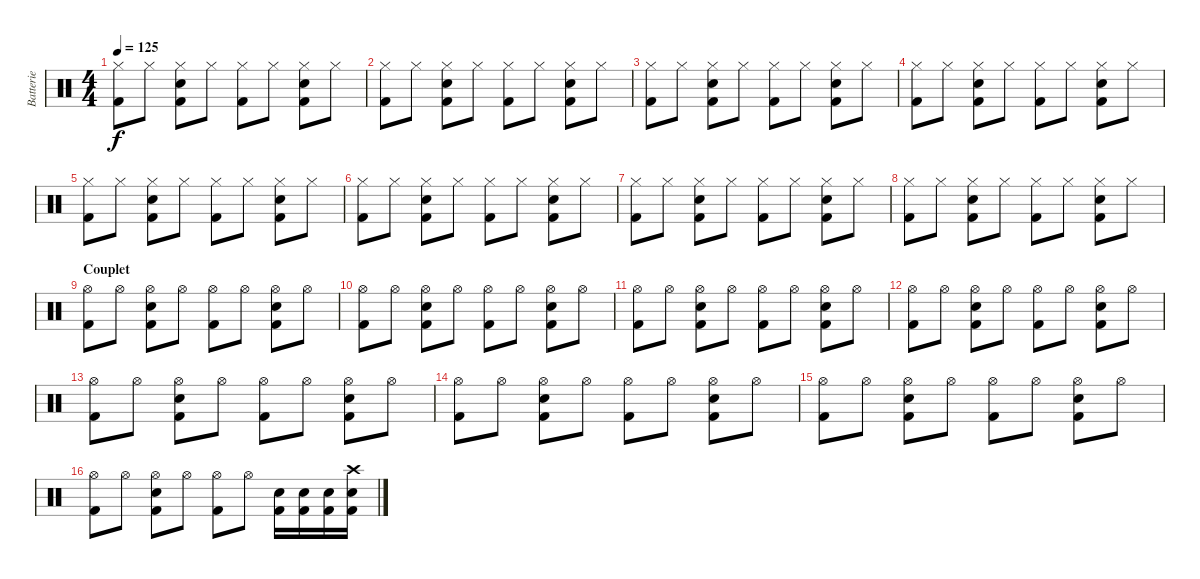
\track ("Batterie" "Batterie") {instrument percussion}
\staff {score}
\articulation defaults
\ts (4 4)
\tempo 125
\clef neutral
\ks c
("Hi-Hat (closed)" "Kick (hit) 2").8{dy f} "Hi-Hat (closed)".8 ("Hi-Hat (closed)" "Snare (hit) 2" "Kick (hit) 2").8 "Hi-Hat (closed)".8 ("Hi-Hat (closed)" "Kick (hit) 2").8 "Hi-Hat (closed)".8 ("Hi-Hat (closed)" "Snare (hit) 2" "Kick (hit) 2").8 "Hi-Hat (closed)".8 |
("Hi-Hat (closed)" "Kick (hit) 2").8 "Hi-Hat (closed)".8 ("Hi-Hat (closed)" "Snare (hit) 2" "Kick (hit) 2").8 "Hi-Hat (closed)".8 ("Hi-Hat (closed)" "Kick (hit) 2").8 "Hi-Hat (closed)".8 ("Hi-Hat (closed)" "Snare (hit) 2" "Kick (hit) 2").8 "Hi-Hat (closed)".8 |
("Hi-Hat (closed)" "Kick (hit) 2").8 "Hi-Hat (closed)".8 ("Hi-Hat (closed)" "Snare (hit) 2" "Kick (hit) 2").8 "Hi-Hat (closed)".8 ("Hi-Hat (closed)" "Kick (hit) 2").8 "Hi-Hat (closed)".8 ("Hi-Hat (closed)" "Snare (hit) 2" "Kick (hit) 2").8 "Hi-Hat (closed)".8 |
("Hi-Hat (closed)" "Kick (hit) 2").8 "Hi-Hat (closed)".8 ("Hi-Hat (closed)" "Snare (hit) 2" "Kick (hit) 2").8 "Hi-Hat (closed)".8 ("Hi-Hat (closed)" "Kick (hit) 2").8 "Hi-Hat (closed)".8 ("Hi-Hat (closed)" "Snare (hit) 2" "Kick (hit) 2").8 "Hi-Hat (closed)".8 |
("Hi-Hat (closed)" "Kick (hit) 2").8 "Hi-Hat (closed)".8 ("Hi-Hat (closed)" "Snare (hit) 2" "Kick (hit) 2").8 "Hi-Hat (closed)".8 ("Hi-Hat (closed)" "Kick (hit) 2").8 "Hi-Hat (closed)".8 ("Hi-Hat (closed)" "Snare (hit) 2" "Kick (hit) 2").8 "Hi-Hat (closed)".8 |
("Hi-Hat (closed)" "Kick (hit) 2").8 "Hi-Hat (closed)".8 ("Hi-Hat (closed)" "Snare (hit) 2" "Kick (hit) 2").8 "Hi-Hat (closed)".8 ("Hi-Hat (closed)" "Kick (hit) 2").8 "Hi-Hat (closed)".8 ("Hi-Hat (closed)" "Snare (hit) 2" "Kick (hit) 2").8 "Hi-Hat (closed)".8 |
("Hi-Hat (closed)" "Kick (hit) 2").8 "Hi-Hat (closed)".8 ("Hi-Hat (closed)" "Snare (hit) 2" "Kick (hit) 2").8 "Hi-Hat (closed)".8 ("Hi-Hat (closed)" "Kick (hit) 2").8 "Hi-Hat (closed)".8 ("Hi-Hat (closed)" "Snare (hit) 2" "Kick (hit) 2").8 "Hi-Hat (closed)".8 |
("Hi-Hat (closed)" "Kick (hit) 2").8 "Hi-Hat (closed)".8 ("Hi-Hat (closed)" "Snare (hit) 2" "Kick (hit) 2").8 "Hi-Hat (closed)".8 ("Hi-Hat (closed)" "Kick (hit) 2").8 "Hi-Hat (closed)".8 ("Hi-Hat (closed)" "Snare (hit) 2" "Kick (hit) 2").8 "Hi-Hat (closed)".8 |
\section ("" "Couplet")
("Hi-Hat (open)" "Kick (hit) 2").8 "Hi-Hat (open)".8 ("Hi-Hat (open)" "Snare (hit) 2" "Kick (hit) 2").8 "Hi-Hat (open)".8 ("Hi-Hat (open)" "Kick (hit) 2").8 "Hi-Hat (open)".8 ("Hi-Hat (open)" "Snare (hit) 2" "Kick (hit) 2").8 "Hi-Hat (open)".8 |
("Hi-Hat (open)" "Kick (hit) 2").8 "Hi-Hat (open)".8 ("Hi-Hat (open)" "Snare (hit) 2" "Kick (hit) 2").8 "Hi-Hat (open)".8 ("Hi-Hat (open)" "Kick (hit) 2").8 "Hi-Hat (open)".8 ("Hi-Hat (open)" "Snare (hit) 2" "Kick (hit) 2").8 "Hi-Hat (open)".8 |
("Hi-Hat (open)" "Kick (hit) 2").8 "Hi-Hat (open)".8 ("Hi-Hat (open)" "Snare (hit) 2" "Kick (hit) 2").8 "Hi-Hat (open)".8 ("Hi-Hat (open)" "Kick (hit) 2").8 "Hi-Hat (open)".8 ("Hi-Hat (open)" "Snare (hit) 2" "Kick (hit) 2").8 "Hi-Hat (open)".8 |
("Hi-Hat (open)" "Kick (hit) 2").8 "Hi-Hat (open)".8 ("Hi-Hat (open)" "Snare (hit) 2" "Kick (hit) 2").8 "Hi-Hat (open)".8 ("Hi-Hat (open)" "Kick (hit) 2").8 "Hi-Hat (open)".8 ("Hi-Hat (open)" "Snare (hit) 2" "Kick (hit) 2").8 "Hi-Hat (open)".8 |
("Hi-Hat (open)" "Kick (hit) 2").8 "Hi-Hat (open)".8 ("Hi-Hat (open)" "Snare (hit) 2" "Kick (hit) 2").8 "Hi-Hat (open)".8 ("Hi-Hat (open)" "Kick (hit) 2").8 "Hi-Hat (open)".8 ("Hi-Hat (open)" "Snare (hit) 2" "Kick (hit) 2").8 "Hi-Hat (open)".8 |
("Hi-Hat (open)" "Kick (hit) 2").8 "Hi-Hat (open)".8 ("Hi-Hat (open)" "Snare (hit) 2" "Kick (hit) 2").8 "Hi-Hat (open)".8 ("Hi-Hat (open)" "Kick (hit) 2").8 "Hi-Hat (open)".8 ("Hi-Hat (open)" "Snare (hit) 2" "Kick (hit) 2").8 "Hi-Hat (open)".8 |
("Hi-Hat (open)" "Kick (hit) 2").8 "Hi-Hat (open)".8 ("Hi-Hat (open)" "Snare (hit) 2" "Kick (hit) 2").8 "Hi-Hat (open)".8 ("Hi-Hat (open)" "Kick (hit) 2").8 "Hi-Hat (open)".8 ("Hi-Hat (open)" "Snare (hit) 2" "Kick (hit) 2").8 "Hi-Hat (open)".8 |
("Hi-Hat (open)" "Kick (hit) 2").8 "Hi-Hat (open)".8 ("Hi-Hat (open)" "Snare (hit) 2" "Kick (hit) 2").8 "Hi-Hat (open)".8 ("Hi-Hat (open)" "Kick (hit) 2").8 "Hi-Hat (open)".8 ("Snare (hit) 2" "Kick (hit) 2").16 ("Snare (hit) 2" "Kick (hit) 2").16 ("Snare (hit) 2" "Kick (hit) 2").16 ("Crash high (hit)" "Snare (hit) 2" "Kick (hit) 2").16
